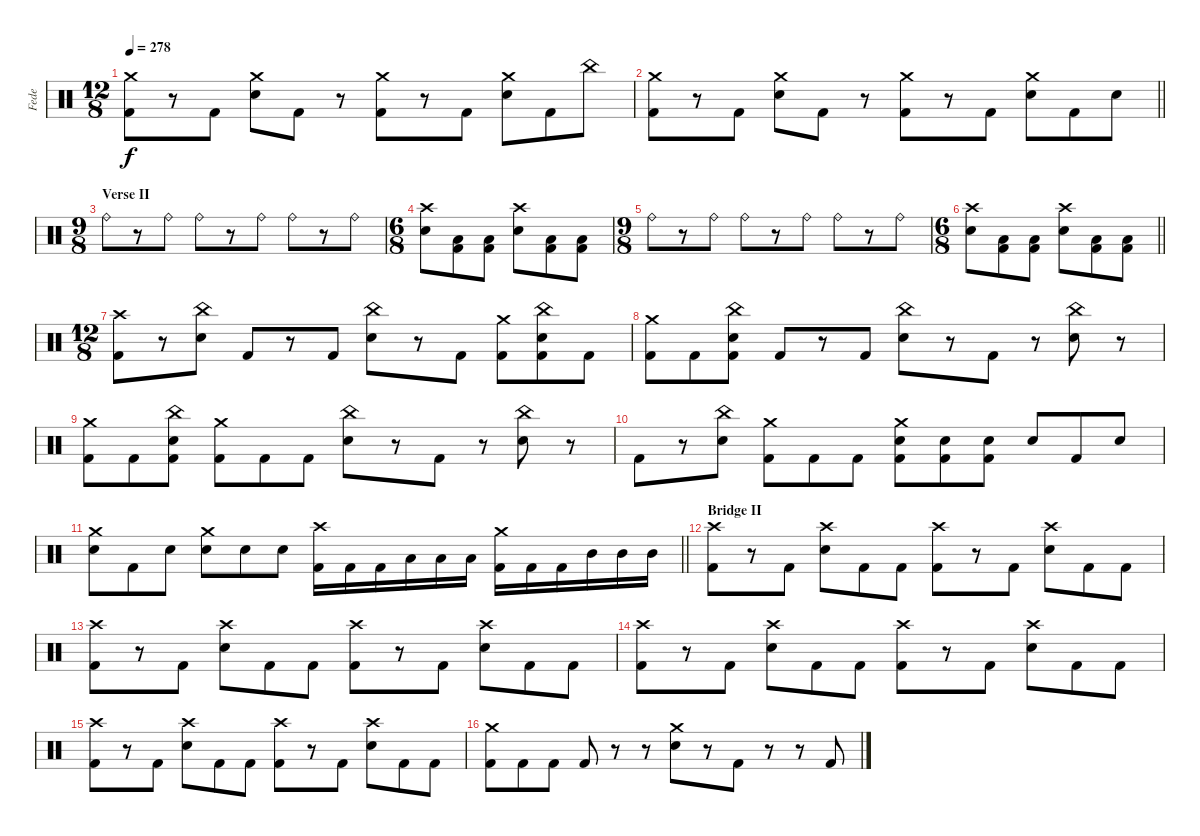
\track ("Fede" "Fede") {instrument percussion}
\staff {score}
\articulation defaults
\ts (12 8)
\tempo 278
\clef neutral
\ks c
("Crash medium (hit)" "Kick (hit) 2").8{dy f} r.8 "Kick (hit) 2".8 ("Crash medium (hit)" "Snare (hit) 2").8 "Kick (hit) 2".8 r.8 ("Crash medium (hit)" "Kick (hit) 2").8 r.8 "Kick (hit) 2".8 ("Crash medium (hit)" "Snare (hit) 2").8 "Kick (hit) 2".8 "China (hit)".8 |
\barLineRight lightlight
("Crash medium (hit)" "Kick (hit) 2").8 r.8 "Kick (hit) 2".8 ("Crash medium (hit)" "Snare (hit) 2").8 "Kick (hit) 2".8 r.8 ("Crash medium (hit)" "Kick (hit) 2").8 r.8 "Kick (hit) 2".8 ("Crash medium (hit)" "Snare (hit) 2").8 "Kick (hit) 2".8 "Snare (hit) 2".8 |
\ts (9 8)
\section ("" "Verse II")
"Ride (bell)".8 r.8 "Ride (bell)".8 "Ride (bell)".8 r.8 "Ride (bell)".8 "Ride (bell)".8 r.8 "Ride (bell)".8 |
\ts (6 8)
("Crash high (hit)" "Snare (hit) 2").8 ("Low Tom (hit)" "Kick (hit) 2").8 ("Low Tom (hit)" "Kick (hit) 2").8 ("Crash high (hit)" "Snare (hit) 2").8 ("Low Tom (hit)" "Kick (hit) 2").8 ("Low Tom (hit)" "Kick (hit) 2").8 |
\ts (9 8)
"Ride (bell)".8 r.8 "Ride (bell)".8 "Ride (bell)".8 r.8 "Ride (bell)".8 "Ride (bell)".8 r.8 "Ride (bell)".8 |
\ts (6 8)
\barLineRight lightlight
("Crash high (hit)" "Snare (hit) 2").8 ("Low Tom (hit)" "Kick (hit) 2").8 ("Low Tom (hit)" "Kick (hit) 2").8 ("Crash high (hit)" "Snare (hit) 2").8 ("Low Tom (hit)" "Kick (hit) 2").8 ("Low Tom (hit)" "Kick (hit) 2").8 |
\ts (12 8)
("Crash high (hit)" "Kick (hit) 2").8 r.8 ("China (hit)" "Snare (hit) 2").8 "Kick (hit) 2".8 r.8 "Kick (hit) 2".8 ("China (hit)" "Snare (hit) 2").8 r.8 "Kick (hit) 2".8 ("Crash medium (hit)" "Kick (hit) 2").8 ("China (hit)" "Snare (hit) 2" "Kick (hit) 2").8 "Kick (hit) 2".8 |
("Crash medium (hit)" "Kick (hit) 2").8 "Kick (hit) 2".8 ("China (hit)" "Snare (hit) 2" "Kick (hit) 2").8 "Kick (hit) 2".8 r.8 "Kick (hit) 2".8 ("China (hit)" "Snare (hit) 2").8 r.8 "Kick (hit) 2".8 r.8 ("China (hit)" "Snare (hit) 2").8 r.8 |
("Crash medium (hit)" "Kick (hit) 2").8 "Kick (hit) 2".8 ("China (hit)" "Snare (hit) 2" "Kick (hit) 2").8 ("Crash medium (hit)" "Kick (hit) 2").8 "Kick (hit) 2".8 "Kick (hit) 2".8 ("China (hit)" "Snare (hit) 2").8 r.8 "Kick (hit) 2".8 r.8 ("China (hit)" "Snare (hit) 2").8 r.8 |
"Kick (hit) 2".8 r.8 ("China (hit)" "Snare (hit) 2").8 ("Crash medium (hit)" "Kick (hit) 2").8 "Kick (hit) 2".8 "Kick (hit) 2".8 ("Crash medium (hit)" "Snare (hit) 2" "Kick (hit) 2").8 ("Snare (hit) 2" "Kick (hit) 2").8 ("Snare (hit) 2" "Kick (hit) 2").8 "Snare (hit) 2".8 "Kick (hit) 2".8 "Snare (hit) 2".8 |
\barLineRight lightlight
("Crash medium (hit)" "Snare (hit) 2").8 "Kick (hit) 2".8 "Snare (hit) 2".8 ("Crash medium (hit)" "Snare (hit) 2").8 "Snare (hit) 2".8 "Snare (hit) 2".8 ("Crash high (hit)" "Kick (hit) 2").16 "Kick (hit) 2".16 "Kick (hit) 2".16 "Low Tom (hit)".16 "Low Tom (hit)".16 "Low Tom (hit)".16 ("Crash medium (hit)" "Kick (hit) 2").16 "Kick (hit) 2".16 "Kick (hit) 2".16 "Mid Tom (hit)".16 "Mid Tom (hit)".16 "Mid Tom (hit)".16 |
\section ("" "Bridge II")
("Crash high (hit)" "Kick (hit) 2").8 r.8 "Kick (hit) 2".8 ("Crash high (hit)" "Snare (hit) 2").8 "Kick (hit) 2".8 "Kick (hit) 2".8 ("Crash high (hit)" "Kick (hit) 2").8 r.8 "Kick (hit) 2".8 ("Crash high (hit)" "Snare (hit) 2").8 "Kick (hit) 2".8 "Kick (hit) 2".8 |
("Crash high (hit)" "Kick (hit) 2").8 r.8 "Kick (hit) 2".8 ("Crash high (hit)" "Snare (hit) 2").8 "Kick (hit) 2".8 "Kick (hit) 2".8 ("Crash high (hit)" "Kick (hit) 2").8 r.8 "Kick (hit) 2".8 ("Crash high (hit)" "Snare (hit) 2").8 "Kick (hit) 2".8 "Kick (hit) 2".8 |
("Crash high (hit)" "Kick (hit) 2").8 r.8 "Kick (hit) 2".8 ("Crash high (hit)" "Snare (hit) 2").8 "Kick (hit) 2".8 "Kick (hit) 2".8 ("Crash high (hit)" "Kick (hit) 2").8 r.8 "Kick (hit) 2".8 ("Crash high (hit)" "Snare (hit) 2").8 "Kick (hit) 2".8 "Kick (hit) 2".8 |
("Crash high (hit)" "Kick (hit) 2").8 r.8 "Kick (hit) 2".8 ("Crash high (hit)" "Snare (hit) 2").8 "Kick (hit) 2".8 "Kick (hit) 2".8 ("Crash high (hit)" "Kick (hit) 2").8 r.8 "Kick (hit) 2".8 ("Crash high (hit)" "Snare (hit) 2").8 "Kick (hit) 2".8 "Kick (hit) 2".8 |
("Crash medium (hit)" "Kick (hit) 2").8 "Kick (hit) 2".8 "Kick (hit) 2".8 "Kick (hit) 2".8 r.8 r.8 ("Crash medium (hit)" "Snare (hit) 2").8 r.8 "Kick (hit) 2".8 r.8 r.8 "Kick (hit) 2".8
